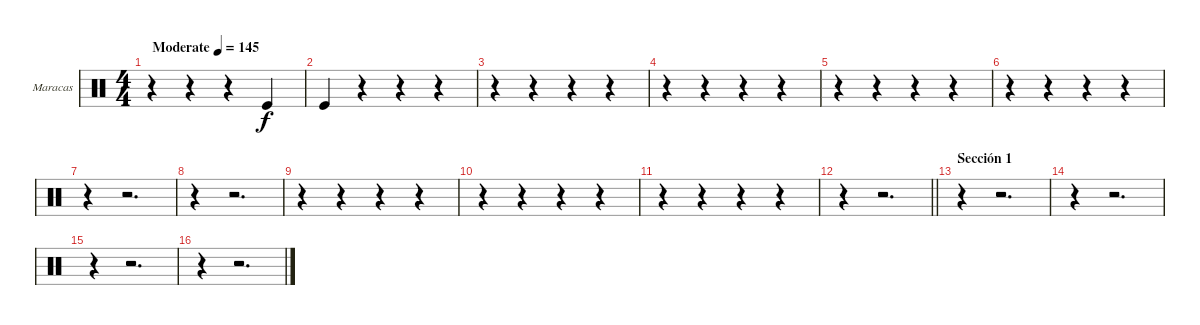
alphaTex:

\bracketExtendMode groupsimilarinstruments
\firstSystemTrackNameOrientation horizontal
\otherSystemsTrackNameOrientation horizontal
\track ("Maracas" "Maracas") {instrument percussion}
\staff {score}
\articulation defaults
\ts (4 4)
\beaming (8 2 2 2 2)
\tempo (145 "Moderate")
\clef neutral
\ks c
r.4{dy f} r.4 r.4 "Kick (hit)".4 |
"Kick (hit)".4 r.4 r.4 r.4 |
r.4 r.4 r.4 r.4 |
r.4 r.4 r.4 r.4 |
r.4 r.4 r.4 r.4 |
r.4 r.4 r.4 r.4 |
r.4 r.2{d} |
r.4 r.2{d} |
r.4 r.4 r.4 r.4 |
r.4 r.4 r.4 r.4 |
r.4 r.4 r.4 r.4 |
\barLineRight lightlight
r.4 r.2{d} |
\section ("" "Sección 1")
r.4 r.2{d} |
r.4 r.2{d} |
r.4 r.2{d} |
r.4 r.2{d}
